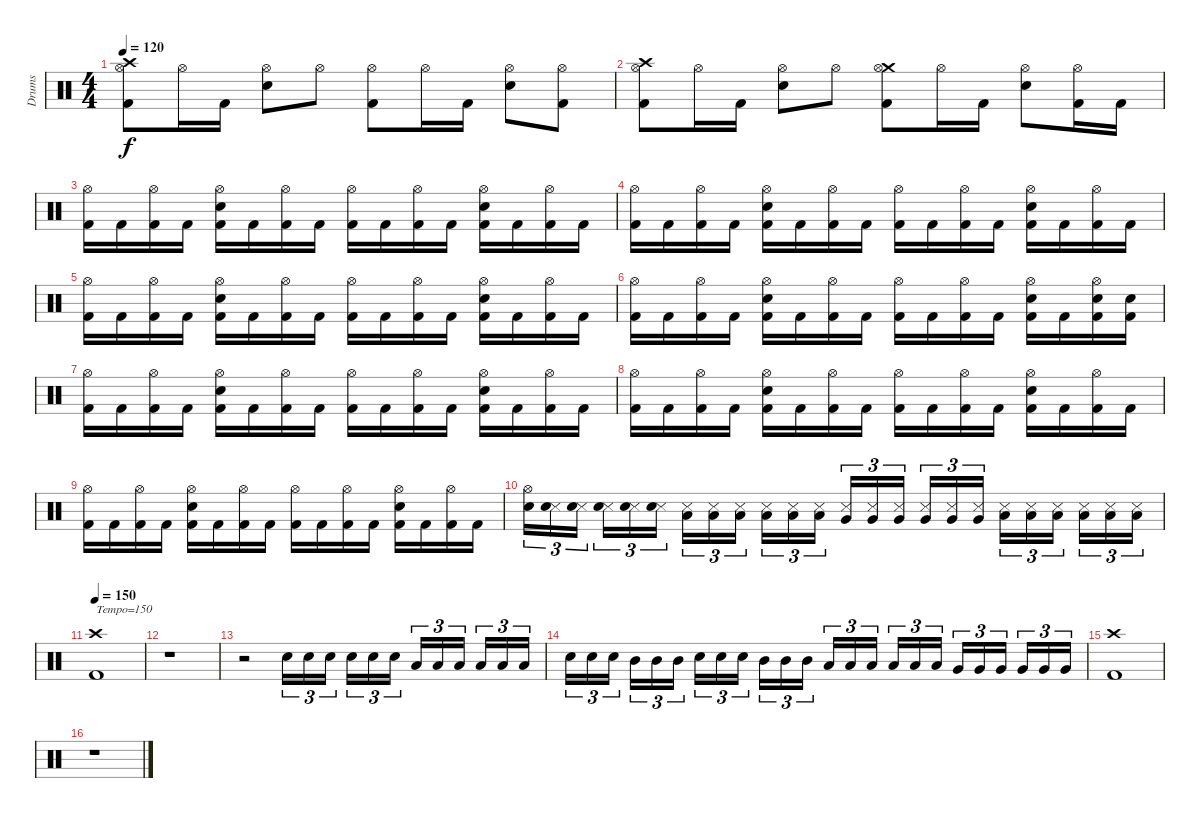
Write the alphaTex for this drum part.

\track ("Drums" "Drums") {instrument percussion}
\staff {score}
\articulation defaults
\ts (4 4)
\tempo 120
\clef neutral
\ks c
("Crash high (hit)" "Hi-Hat (open)" "Kick (hit) 2").8{dy f} "Hi-Hat (open)".16 "Kick (hit) 2".16 ("Hi-Hat (open)" "Electric Snare (hit)").8 "Hi-Hat (open)".8 ("Hi-Hat (open)" "Kick (hit) 2").8 "Hi-Hat (open)".16 "Kick (hit) 2".16 ("Hi-Hat (open)" "Electric Snare (hit)").8 ("Hi-Hat (open)" "Kick (hit) 2").8 |
("Crash high (hit)" "Hi-Hat (open)" "Kick (hit) 2").8 "Hi-Hat (open)".16 "Kick (hit) 2".16 ("Hi-Hat (open)" "Electric Snare (hit)").8 "Hi-Hat (open)".8 ("Crash medium (hit)" "Hi-Hat (open)" "Kick (hit) 2").8 "Hi-Hat (open)".16 "Kick (hit) 2".16 ("Hi-Hat (open)" "Electric Snare (hit)").8 ("Hi-Hat (open)" "Kick (hit) 2").16 "Kick (hit) 2".16 |
("Hi-Hat (open)" "Kick (hit) 2").16 "Kick (hit) 2".16 ("Hi-Hat (open)" "Kick (hit) 2").16 "Kick (hit) 2".16 ("Hi-Hat (open)" "Electric Snare (hit)" "Kick (hit) 2").16 "Kick (hit) 2".16 ("Hi-Hat (open)" "Kick (hit) 2").16 "Kick (hit) 2".16 ("Hi-Hat (open)" "Kick (hit) 2").16 "Kick (hit) 2".16 ("Hi-Hat (open)" "Kick (hit) 2").16 "Kick (hit) 2".16 ("Hi-Hat (open)" "Electric Snare (hit)" "Kick (hit) 2").16 "Kick (hit) 2".16 ("Hi-Hat (open)" "Kick (hit) 2").16 "Kick (hit) 2".16 |
("Hi-Hat (open)" "Kick (hit) 2").16 "Kick (hit) 2".16 ("Hi-Hat (open)" "Kick (hit) 2").16 "Kick (hit) 2".16 ("Hi-Hat (open)" "Electric Snare (hit)" "Kick (hit) 2").16 "Kick (hit) 2".16 ("Hi-Hat (open)" "Kick (hit) 2").16 "Kick (hit) 2".16 ("Hi-Hat (open)" "Kick (hit) 2").16 "Kick (hit) 2".16 ("Hi-Hat (open)" "Kick (hit) 2").16 "Kick (hit) 2".16 ("Hi-Hat (open)" "Electric Snare (hit)" "Kick (hit) 2").16 "Kick (hit) 2".16 ("Hi-Hat (open)" "Kick (hit) 2").16 "Kick (hit) 2".16 |
("Hi-Hat (open)" "Kick (hit) 2").16 "Kick (hit) 2".16 ("Hi-Hat (open)" "Kick (hit) 2").16 "Kick (hit) 2".16 ("Hi-Hat (open)" "Electric Snare (hit)" "Kick (hit) 2").16 "Kick (hit) 2".16 ("Hi-Hat (open)" "Kick (hit) 2").16 "Kick (hit) 2".16 ("Hi-Hat (open)" "Kick (hit) 2").16 "Kick (hit) 2".16 ("Hi-Hat (open)" "Kick (hit) 2").16 "Kick (hit) 2".16 ("Hi-Hat (open)" "Electric Snare (hit)" "Kick (hit) 2").16 "Kick (hit) 2".16 ("Hi-Hat (open)" "Kick (hit) 2").16 "Kick (hit) 2".16 |
("Hi-Hat (open)" "Kick (hit) 2").16 "Kick (hit) 2".16 ("Hi-Hat (open)" "Kick (hit) 2").16 "Kick (hit) 2".16 ("Hi-Hat (open)" "Electric Snare (hit)" "Kick (hit) 2").16 "Kick (hit) 2".16 ("Hi-Hat (open)" "Kick (hit) 2").16 "Kick (hit) 2".16 ("Hi-Hat (open)" "Kick (hit) 2").16 "Kick (hit) 2".16 ("Hi-Hat (open)" "Kick (hit) 2").16 "Kick (hit) 2".16 ("Hi-Hat (open)" "Electric Snare (hit)" "Kick (hit) 2").16 "Kick (hit) 2".16 ("Hi-Hat (open)" "Electric Snare (hit)" "Kick (hit) 2").16 ("Electric Snare (hit)" "Kick (hit) 2").16 |
("Hi-Hat (open)" "Kick (hit) 2").16 "Kick (hit) 2".16 ("Hi-Hat (open)" "Kick (hit) 2").16 "Kick (hit) 2".16 ("Hi-Hat (open)" "Electric Snare (hit)" "Kick (hit) 2").16 "Kick (hit) 2".16 ("Hi-Hat (open)" "Kick (hit) 2").16 "Kick (hit) 2".16 ("Hi-Hat (open)" "Kick (hit) 2").16 "Kick (hit) 2".16 ("Hi-Hat (open)" "Kick (hit) 2").16 "Kick (hit) 2".16 ("Hi-Hat (open)" "Electric Snare (hit)" "Kick (hit) 2").16 "Kick (hit) 2".16 ("Hi-Hat (open)" "Kick (hit) 2").16 "Kick (hit) 2".16 |
("Hi-Hat (open)" "Kick (hit) 2").16 "Kick (hit) 2".16 ("Hi-Hat (open)" "Kick (hit) 2").16 "Kick (hit) 2".16 ("Hi-Hat (open)" "Electric Snare (hit)" "Kick (hit) 2").16 "Kick (hit) 2".16 ("Hi-Hat (open)" "Kick (hit) 2").16 "Kick (hit) 2".16 ("Hi-Hat (open)" "Kick (hit) 2").16 "Kick (hit) 2".16 ("Hi-Hat (open)" "Kick (hit) 2").16 "Kick (hit) 2".16 ("Hi-Hat (open)" "Electric Snare (hit)" "Kick (hit) 2").16 "Kick (hit) 2".16 ("Hi-Hat (open)" "Kick (hit) 2").16 "Kick (hit) 2".16 |
("Hi-Hat (open)" "Kick (hit) 2").16 "Kick (hit) 2".16 ("Hi-Hat (open)" "Kick (hit) 2").16 "Kick (hit) 2".16 ("Hi-Hat (open)" "Electric Snare (hit)" "Kick (hit) 2").16 "Kick (hit) 2".16 ("Hi-Hat (open)" "Kick (hit) 2").16 "Kick (hit) 2".16 ("Hi-Hat (open)" "Kick (hit) 2").16 "Kick (hit) 2".16 ("Hi-Hat (open)" "Kick (hit) 2").16 "Kick (hit) 2".16 ("Hi-Hat (open)" "Electric Snare (hit)" "Kick (hit) 2").16 "Kick (hit) 2".16 ("Hi-Hat (open)" "Kick (hit) 2").16 "Kick (hit) 2".16 |
("Hi-Hat (open)" "Electric Snare (hit)").16{tu (3 2)} ("Snare (side stick) 3" "Electric Snare (hit)").16{tu (3 2)} ("Snare (side stick) 3" "Electric Snare (hit)").16{tu (3 2)} ("Snare (side stick) 3" "Electric Snare (hit)").16{tu (3 2)} ("Snare (side stick) 3" "Electric Snare (hit)").16{tu (3 2)} ("Snare (side stick) 3" "Electric Snare (hit)").16{tu (3 2)} ("Snare (side stick) 3" "Low Tom (hit)").16{tu (3 2)} ("Snare (side stick) 3" "Low Tom (hit)").16{tu (3 2)} ("Snare (side stick) 3" "Low Tom (hit)").16{tu (3 2)} ("Snare (side stick) 3" "Low Tom (hit)").16{tu (3 2)} ("Snare (side stick) 3" "Low Tom (hit)").16{tu (3 2)} ("Snare (side stick) 3" "Low Tom (hit)").16{tu (3 2)} ("Snare (side stick) 3" "Very Low Tom (hit)").16{tu (3 2)} ("Snare (side stick) 3" "Very Low Tom (hit)").16{tu (3 2)} ("Snare (side stick) 3" "Very Low Tom (hit)").16{tu (3 2)} ("Snare (side stick) 3" "Very Low Tom (hit)").16{tu (3 2)} ("Snare (side stick) 3" "Very Low Tom (hit)").16{tu (3 2)} ("Snare (side stick) 3" "Very Low Tom (hit)").16{tu (3 2)} ("Snare (side stick) 3" "Low Floor Tom (hit)").16{tu (3 2)} ("Snare (side stick) 3" "Low Floor Tom (hit)").16{tu (3 2)} ("Snare (side stick) 3" "Low Floor Tom (hit)").16{tu (3 2)} ("Snare (side stick) 3" "Low Floor Tom (hit)").16{tu (3 2)} ("Snare (side stick) 3" "Low Floor Tom (hit)").16{tu (3 2)} ("Snare (side stick) 3" "Low Floor Tom (hit)").16{tu (3 2)} |
\tempo 150
("Crash high (hit)" "Kick (hit) 2").1{txt "Tempo=150"} |
r.1 |
r.2 "Electric Snare (hit)".16{tu (3 2)} "Electric Snare (hit)".16{tu (3 2)} "Electric Snare (hit)".16{tu (3 2)} "Electric Snare (hit)".16{tu (3 2)} "Electric Snare (hit)".16{tu (3 2)} "Electric Snare (hit)".16{tu (3 2)} "Low Tom (hit)".16{tu (3 2)} "Low Tom (hit)".16{tu (3 2)} "Low Tom (hit)".16{tu (3 2)} "Low Tom (hit)".16{tu (3 2)} "Low Tom (hit)".16{tu (3 2)} "Low Tom (hit)".16{tu (3 2)} |
"Electric Snare (hit)".16{tu (3 2)} "Electric Snare (hit)".16{tu (3 2)} "Electric Snare (hit)".16{tu (3 2)} "Mid Tom (hit)".16{tu (3 2)} "Mid Tom (hit)".16{tu (3 2)} "Mid Tom (hit)".16{tu (3 2)} "Electric Snare (hit)".16{tu (3 2)} "Electric Snare (hit)".16{tu (3 2)} "Electric Snare (hit)".16{tu (3 2)} "Mid Tom (hit)".16{tu (3 2)} "Mid Tom (hit)".16{tu (3 2)} "Mid Tom (hit)".16{tu (3 2)} "Low Tom (hit)".16{tu (3 2)} "Low Tom (hit)".16{tu (3 2)} "Low Tom (hit)".16{tu (3 2)} "Low Tom (hit)".16{tu (3 2)} "Low Tom (hit)".16{tu (3 2)} "Low Tom (hit)".16{tu (3 2)} "Very Low Tom (hit)".16{tu (3 2)} "Very Low Tom (hit)".16{tu (3 2)} "Very Low Tom (hit)".16{tu (3 2)} "Very Low Tom (hit)".16{tu (3 2)} "Very Low Tom (hit)".16{tu (3 2)} "Very Low Tom (hit)".16{tu (3 2)} |
("Crash high (hit)" "Kick (hit) 2").1 |
r.1
